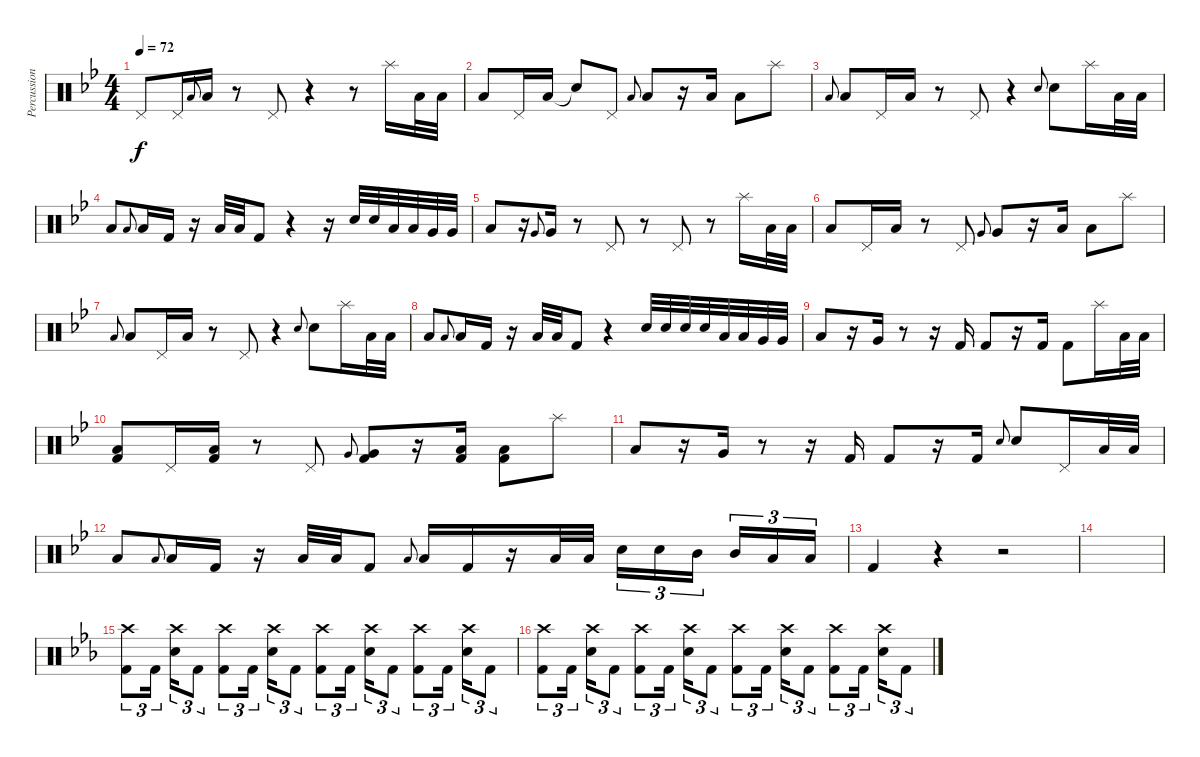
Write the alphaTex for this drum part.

\track ("Percussion" "Percussion") {instrument percussion}
\staff {score}
\articulation defaults
\ts (4 4)
\tempo 72
\clef neutral
\ks bb "Pedal Hi-Hat (hit)".8{dy f} "Pedal Hi-Hat (hit)".16 "Low Floor Tom (hit)".8{gr onbeat} "Low Floor Tom (hit)".16
r.8 "Pedal Hi-Hat (hit)".8 r.4 r.8 "Splash (hit)".16 "Low Floor Tom (hit)".32 "Low Floor Tom (hit)".32 |
"Low Floor Tom (hit)".8 "Pedal Hi-Hat (hit)".16 "Low Floor Tom (hit)".16 "Snare (hit)"{t}.8 "Pedal Hi-Hat (hit)".8 "Low Floor Tom (hit)".8{gr onbeat} "Low Floor Tom (hit)".8 r.16 "Low Floor Tom (hit)".16 "Low Floor Tom (hit)".8 "Splash (hit)".8 |
"Low Floor Tom (hit)".8{gr onbeat} "Low Floor Tom (hit)".8 "Pedal Hi-Hat (hit)".16 "Low Floor Tom (hit)".16 r.8 "Pedal Hi-Hat (hit)".8 r.4 "Electric Snare (hit)".8{gr onbeat} "Electric Snare (hit)".8 "Splash (hit)".16 "Low Floor Tom (hit)".32 "Low Floor Tom (hit)".32 |
"Low Floor Tom (hit)".8 "Low Floor Tom (hit)".8{gr onbeat} "Low Floor Tom (hit)".16 "Kick (hit) 2".16 r.16 "Low Floor Tom (hit)".32 "Low Floor Tom (hit)".32 "Kick (hit) 2".8 r.4 r.16 "Electric Snare (hit)".32 "Electric Snare (hit)".32 "Low Tom (hit)".32 "Low Tom (hit)".32 "Very Low Tom (hit)".32 "Very Low Tom (hit)".32 |
"Low Tom (hit)".8 r.16 "Very Low Tom (hit)".8{gr onbeat} "Very Low Tom (hit)".16 r.8 "Pedal Hi-Hat (hit)".8 r.8 "Pedal Hi-Hat (hit)".8 r.8 "Splash (hit)".16 "Low Floor Tom (hit)".32 "Low Floor Tom (hit)".32 |
"Low Floor Tom (hit)".8 "Pedal Hi-Hat (hit)".16 "Low Floor Tom (hit)".16 r.8 "Pedal Hi-Hat (hit)".8 "Very Low Tom (hit)".8{gr onbeat} "Very Low Tom (hit)".8 r.16 "Low Floor Tom (hit)".16 "Low Floor Tom (hit)".8 "Splash (hit)".8 |
"Low Floor Tom (hit)".8{gr onbeat} "Low Floor Tom (hit)".8 "Pedal Hi-Hat (hit)".16 "Low Floor Tom (hit)".16 r.8 "Pedal Hi-Hat (hit)".8 r.4 "Electric Snare (hit)".8{gr onbeat} "Electric Snare (hit)".8 "Splash (hit)".16 "Low Floor Tom (hit)".32 "Low Floor Tom (hit)".32 |
"Low Floor Tom (hit)".8 "Low Floor Tom (hit)".8{gr onbeat} "Low Floor Tom (hit)".16 "Kick (hit) 2".16 r.16 "Low Floor Tom (hit)".32 "Low Floor Tom (hit)".32 "Kick (hit) 2".8 r.4 "Electric Snare (hit)".32 "Electric Snare (hit)".32 "Electric Snare (hit)".32 "Electric Snare (hit)".32 "Low Tom (hit)".32 "Low Tom (hit)".32 "Very Low Tom (hit)".32 "Very Low Tom (hit)".32 |
"Low Tom (hit)".8 r.16 "Very Low Tom (hit)".16 r.8 r.16 "Kick (hit) 2".16 "Kick (hit) 2".8 r.16 "Kick (hit) 2".16 "Kick (hit) 2".8 "Splash (hit)".16 "Low Floor Tom (hit)".32 "Low Floor Tom (hit)".32 |
("Low Floor Tom (hit)" "Kick (hit) 2").8 "Pedal Hi-Hat (hit)".16 ("Low Floor Tom (hit)" "Kick (hit) 2").16 r.8 "Pedal Hi-Hat (hit)".8 "Very Low Tom (hit)".8{gr onbeat} ("Very Low Tom (hit)" "Kick (hit) 2").8 r.16 ("Low Floor Tom (hit)" "Kick (hit) 2").16 ("Low Floor Tom (hit)" "Kick (hit) 2").8 "Splash (hit)".8 |
"Low Tom (hit)".8 r.16 "Very Low Tom (hit)".16 r.8 r.16 "Kick (hit) 2".16 "Kick (hit) 2".8 r.16 "Kick (hit) 2".16 "Electric Snare (hit)".8{gr onbeat} "Electric Snare (hit)".8 "Pedal Hi-Hat (hit)".16 "Low Floor Tom (hit)".32 "Low Floor Tom (hit)".32 |
"Low Floor Tom (hit)".8 "Low Floor Tom (hit)".8{gr onbeat} "Low Floor Tom (hit)".16 "Kick (hit) 2".16 r.16 "Low Floor Tom (hit)".32 "Low Floor Tom (hit)".32 "Kick (hit) 2".8 "Low Floor Tom (hit)".8{gr onbeat} "Low Floor Tom (hit)".16 "Kick (hit) 2".16 r.16 "Low Floor Tom (hit)".32 "Low Floor Tom (hit)".32 "Electric Snare (hit)".16{tu (3 2)} "Electric Snare (hit)".16{tu (3 2)} "Mid Tom (hit)".16{tu (3 2) beam splitsecondary} "Mid Tom (hit)".16{tu (3 2)} "Low Tom (hit)".16{tu (3 2)} "Low Tom (hit)".16{tu (3 2)} |
"Kick (hit) 2".4 r.4 r.2 |
|
\ks eb
("Crash high (hit)" "Kick (hit) 2").8{tu (3 2)} "Kick (hit) 2".16{tu (3 2) beam splitsecondary} ("Crash high (hit)" "Electric Snare (hit)").16{tu (3 2)} "Kick (hit) 2".8{tu (3 2)} ("Crash high (hit)" "Kick (hit) 2").8{tu (3 2)} "Kick (hit) 2".16{tu (3 2) beam splitsecondary} ("Crash high (hit)" "Electric Snare (hit)").16{tu (3 2)} "Kick (hit) 2".8{tu (3 2)} ("Crash high (hit)" "Kick (hit) 2").8{tu (3 2)} "Kick (hit) 2".16{tu (3 2) beam splitsecondary} ("Crash high (hit)" "Electric Snare (hit)").16{tu (3 2)} "Kick (hit) 2".8{tu (3 2)} ("Crash high (hit)" "Kick (hit) 2").8{tu (3 2)} "Kick (hit) 2".16{tu (3 2) beam splitsecondary} ("Crash high (hit)" "Electric Snare (hit)").16{tu (3 2)} "Kick (hit) 2".8{tu (3 2)} |
("Crash high (hit)" "Kick (hit) 2").8{tu (3 2)} "Kick (hit) 2".16{tu (3 2) beam splitsecondary} ("Crash high (hit)" "Electric Snare (hit)").16{tu (3 2)} "Kick (hit) 2".8{tu (3 2)} ("Crash high (hit)" "Kick (hit) 2").8{tu (3 2)} "Kick (hit) 2".16{tu (3 2) beam splitsecondary} ("Crash high (hit)" "Electric Snare (hit)").16{tu (3 2)} "Kick (hit) 2".8{tu (3 2)} ("Crash high (hit)" "Kick (hit) 2").8{tu (3 2)} "Kick (hit) 2".16{tu (3 2) beam splitsecondary} ("Crash high (hit)" "Electric Snare (hit)").16{tu (3 2)} "Kick (hit) 2".8{tu (3 2)} ("Crash high (hit)" "Kick (hit) 2").8{tu (3 2)} "Kick (hit) 2".16{tu (3 2) beam splitsecondary} ("Crash high (hit)" "Electric Snare (hit)").16{tu (3 2)} "Kick (hit) 2".8{tu (3 2)}
